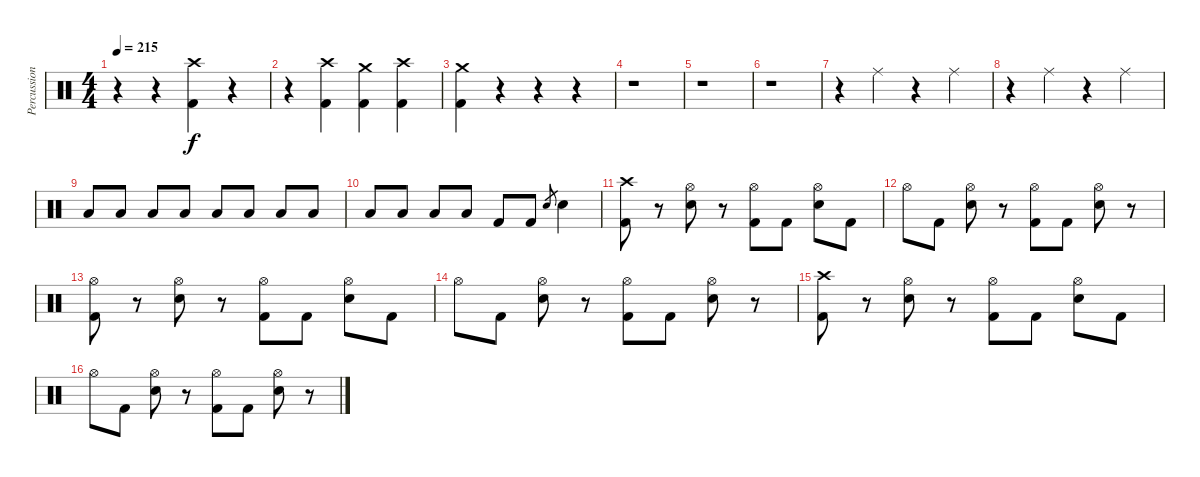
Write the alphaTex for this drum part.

\track ("Percussion" "Percussion") {instrument percussion}
\staff {score}
\articulation defaults
\ts (4 4)
\tempo 215
\clef neutral
\ks c
r.4{dy f} r.4 ("Crash high (hit)" "Kick (hit) 2").4 r.4 |
r.4 ("Crash high (hit)" "Kick (hit) 2").4 ("Crash medium (hit)" "Kick (hit) 2").4 ("Crash high (hit)" "Kick (hit) 2").4 |
("Crash medium (hit)" "Kick (hit) 2").4 r.4 r.4 r.4 |
r.1 |
r.1 |
r.1 |
r.4 "Ride (middle)".4 r.4 "Ride (middle)".4 |
r.4 "Ride (middle)".4 r.4 "Ride (middle)".4 |
"Low Tom (hit)".8 "Low Tom (hit)".8 "Low Tom (hit)".8 "Low Tom (hit)".8 "Low Tom (hit)".8 "Low Tom (hit)".8 "Low Tom (hit)".8 "Low Tom (hit)".8 |
"Low Tom (hit)".8 "Low Tom (hit)".8 "Low Tom (hit)".8 "Low Tom (hit)".8 "Kick (hit) 2".8 "Kick (hit) 2".8 "Snare (hit) 2".8{gr} "Snare (hit) 2".4 |
("Crash high (hit)" "Kick (hit) 2").8 r.8 ("Hi-Hat (open)" "Snare (hit) 2").8 r.8 ("Hi-Hat (open)" "Kick (hit) 2").8 "Kick (hit) 2".8 ("Hi-Hat (open)" "Snare (hit) 2").8 "Kick (hit) 2".8 |
"Hi-Hat (open)".8 "Kick (hit) 2".8 ("Hi-Hat (open)" "Snare (hit) 2").8 r.8 ("Hi-Hat (open)" "Kick (hit) 2").8 "Kick (hit) 2".8 ("Hi-Hat (open)" "Snare (hit) 2").8 r.8 |
("Hi-Hat (open)" "Kick (hit) 2").8 r.8 ("Hi-Hat (open)" "Snare (hit) 2").8 r.8 ("Hi-Hat (open)" "Kick (hit) 2").8 "Kick (hit) 2".8 ("Hi-Hat (open)" "Snare (hit) 2").8 "Kick (hit) 2".8 |
"Hi-Hat (open)".8 "Kick (hit) 2".8 ("Hi-Hat (open)" "Snare (hit) 2").8 r.8 ("Hi-Hat (open)" "Kick (hit) 2").8 "Kick (hit) 2".8 ("Hi-Hat (open)" "Snare (hit) 2").8 r.8 |
("Crash high (hit)" "Kick (hit) 2").8 r.8 ("Hi-Hat (open)" "Snare (hit) 2").8 r.8 ("Hi-Hat (open)" "Kick (hit) 2").8 "Kick (hit) 2".8 ("Hi-Hat (open)" "Snare (hit) 2").8 "Kick (hit) 2".8 |
"Hi-Hat (open)".8 "Kick (hit) 2".8 ("Hi-Hat (open)" "Snare (hit) 2").8 r.8 ("Hi-Hat (open)" "Kick (hit) 2").8 "Kick (hit) 2".8 ("Hi-Hat (open)" "Snare (hit) 2").8 r.8
